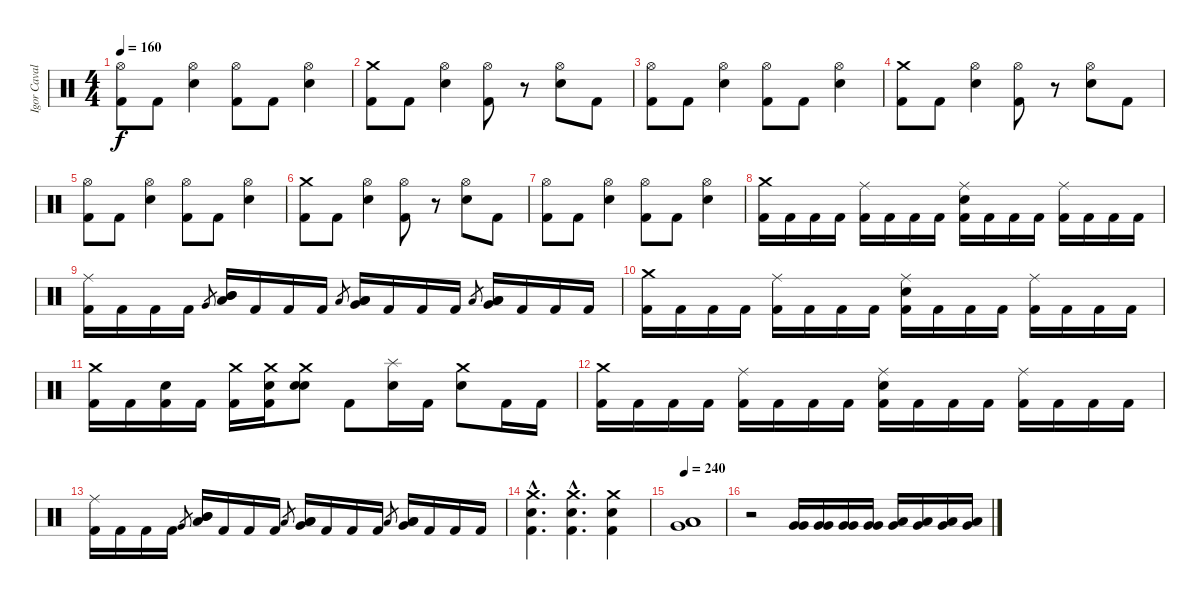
\track ("Igor Cavalera" "Igor Caval") {instrument percussion}
\staff {score}
\articulation defaults
\ts (4 4)
\tempo 160
\clef neutral
\ks c
("Kick (hit) 2" "Hi-Hat (open)").8{dy f} "Kick (hit) 2".8 ("Hi-Hat (open)" "Electric Snare (hit)").4 ("Hi-Hat (open)" "Kick (hit) 2").8 "Kick (hit) 2".8 ("Hi-Hat (open)" "Electric Snare (hit)").4 |
("Kick (hit) 2" "Crash medium (hit)").8 "Kick (hit) 2".8 ("Hi-Hat (open)" "Electric Snare (hit)").4 ("Hi-Hat (open)" "Kick (hit) 2").8 r.8 ("Hi-Hat (open)" "Electric Snare (hit)").8 "Kick (hit) 2".8 |
("Kick (hit) 2" "Hi-Hat (open)").8 "Kick (hit) 2".8 ("Hi-Hat (open)" "Electric Snare (hit)").4 ("Hi-Hat (open)" "Kick (hit) 2").8 "Kick (hit) 2".8 ("Hi-Hat (open)" "Electric Snare (hit)").4 |
("Kick (hit) 2" "Crash medium (hit)").8 "Kick (hit) 2".8 ("Hi-Hat (open)" "Electric Snare (hit)").4 ("Hi-Hat (open)" "Kick (hit) 2").8 r.8 ("Hi-Hat (open)" "Electric Snare (hit)").8 "Kick (hit) 2".8 |
("Kick (hit) 2" "Hi-Hat (open)").8 "Kick (hit) 2".8 ("Hi-Hat (open)" "Electric Snare (hit)").4 ("Hi-Hat (open)" "Kick (hit) 2").8 "Kick (hit) 2".8 ("Hi-Hat (open)" "Electric Snare (hit)").4 |
("Kick (hit) 2" "Crash medium (hit)").8 "Kick (hit) 2".8 ("Hi-Hat (open)" "Electric Snare (hit)").4 ("Hi-Hat (open)" "Kick (hit) 2").8 r.8 ("Hi-Hat (open)" "Electric Snare (hit)").8 "Kick (hit) 2".8 |
("Kick (hit) 2" "Hi-Hat (open)").8 "Kick (hit) 2".8 ("Hi-Hat (open)" "Electric Snare (hit)").4 ("Hi-Hat (open)" "Kick (hit) 2").8 "Kick (hit) 2".8 ("Hi-Hat (open)" "Electric Snare (hit)").4 |
("Crash medium (hit)" "Kick (hit) 2").16 "Kick (hit) 2".16 "Kick (hit) 2".16 "Kick (hit) 2".16 ("Ride (middle)" "Kick (hit) 2").16 "Kick (hit) 2".16 "Kick (hit) 2".16 "Kick (hit) 2".16 ("Ride (middle)" "Kick (hit) 2" "Electric Snare (hit)").16 "Kick (hit) 2".16 "Kick (hit) 2".16 "Kick (hit) 2".16 ("Ride (middle)" "Kick (hit) 2").16 "Kick (hit) 2".16 "Kick (hit) 2".16 "Kick (hit) 2".16 |
("Ride (middle)" "Kick (hit) 2").16 "Kick (hit) 2".16 "Kick (hit) 2".16 "Kick (hit) 2".16 "Very Low Tom (hit)".8{gr} ("Mid Tom (hit)" "Mid Tom (hit)" "Low Tom (hit)").16 "Kick (hit) 2".16 "Kick (hit) 2".16 "Kick (hit) 2".16 "Low Floor Tom (hit)".8{gr} ("Low Tom (hit)" "Low Tom (hit)" "Very Low Tom (hit)").16 "Kick (hit) 2".16 "Kick (hit) 2".16 "Kick (hit) 2".16 "Low Floor Tom (hit)".8{gr} ("Low Tom (hit)" "Very Low Tom (hit)" "Low Floor Tom (hit)").16 "Kick (hit) 2".16 "Kick (hit) 2".16 "Kick (hit) 2".16 |
("Crash medium (hit)" "Kick (hit) 2").16 "Kick (hit) 2".16 "Kick (hit) 2".16 "Kick (hit) 2".16 ("Ride (middle)" "Kick (hit) 2").16 "Kick (hit) 2".16 "Kick (hit) 2".16 "Kick (hit) 2".16 ("Ride (middle)" "Kick (hit) 2" "Electric Snare (hit)").16 "Kick (hit) 2".16 "Kick (hit) 2".16 "Kick (hit) 2".16 ("Ride (middle)" "Kick (hit) 2").16 "Kick (hit) 2".16 "Kick (hit) 2".16 "Kick (hit) 2".16 |
("Crash medium (hit)" "Kick (hit) 2").16 "Kick (hit) 2".16 ("Kick (hit) 2" "Electric Snare (hit)").16 "Kick (hit) 2".16 ("Crash medium (hit)" "Kick (hit) 2").16 ("Crash medium (hit)" "Kick (hit) 2" "Electric Snare (hit)").16 ("Crash medium (hit)" "Electric Snare (hit)" "Electric Snare (hit)").8 "Kick (hit) 2".8 ("Splash (hit)" "Electric Snare (hit)").16 "Kick (hit) 2".16 ("Crash medium (hit)" "Electric Snare (hit)").8 "Kick (hit) 2".16 "Kick (hit) 2".16 |
("Crash medium (hit)" "Kick (hit) 2").16 "Kick (hit) 2".16 "Kick (hit) 2".16 "Kick (hit) 2".16 ("Ride (middle)" "Kick (hit) 2").16 "Kick (hit) 2".16 "Kick (hit) 2".16 "Kick (hit) 2".16 ("Ride (middle)" "Kick (hit) 2" "Electric Snare (hit)").16 "Kick (hit) 2".16 "Kick (hit) 2".16 "Kick (hit) 2".16 ("Ride (middle)" "Kick (hit) 2").16 "Kick (hit) 2".16 "Kick (hit) 2".16 "Kick (hit) 2".16 |
("Ride (middle)" "Kick (hit) 2").16 "Kick (hit) 2".16 "Kick (hit) 2".16 "Kick (hit) 2".16 "Very Low Tom (hit)".8{gr} ("Mid Tom (hit)" "Mid Tom (hit)" "Low Tom (hit)").16 "Kick (hit) 2".16 "Kick (hit) 2".16 "Kick (hit) 2".16 "Low Floor Tom (hit)".8{gr} ("Low Tom (hit)" "Low Tom (hit)" "Very Low Tom (hit)").16 "Kick (hit) 2".16 "Kick (hit) 2".16 "Kick (hit) 2".16 "Low Floor Tom (hit)".8{gr} ("Low Tom (hit)" "Very Low Tom (hit)" "Low Floor Tom (hit)").16 "Kick (hit) 2".16 "Kick (hit) 2".16 "Kick (hit) 2".16 |
("Crash medium (hit)"{hac} "Kick (hit) 2"{hac} "Electric Snare (hit)"{hac}).4{d} ("Crash medium (hit)"{hac} "Kick (hit) 2"{hac} "Electric Snare (hit)"{hac}).4{d} ("Crash medium (hit)" "Kick (hit) 2" "Electric Snare (hit)").4 |
\tempo 240
("Low Floor Tom (hit)" "Low Tom (hit)" "Very Low Tom (hit)").1 |
r.2 ("Very Low Tom (hit)" "Very Low Tom (hit)").16 ("Very Low Tom (hit)" "Very Low Tom (hit)").16 ("Very Low Tom (hit)" "Very Low Tom (hit)").16 ("Very Low Tom (hit)" "Very Low Tom (hit)").16 ("Low Floor Tom (hit)" "Very Low Tom (hit)").16 ("Low Floor Tom (hit)" "Very Low Tom (hit)").16 ("Low Floor Tom (hit)" "Very Low Tom (hit)").16 ("Very Low Tom (hit)" "Low Floor Tom (hit)").16
